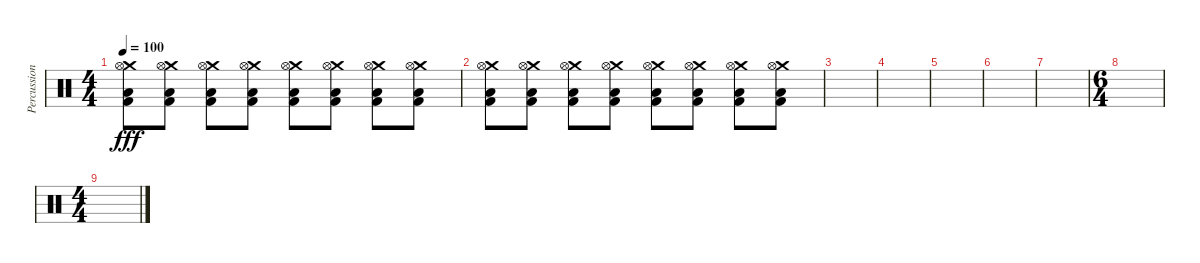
\track ("Percussion" "Percussion") {instrument percussion}
\staff {score}
\articulation defaults
\ts (4 4)
\tempo 100
\clef neutral
\ks c
("Crash medium (hit)" "Kick (hit) 2" "Low Floor Tom (hit)" "Hi-Hat (open)").8{dy fff volume 16 balance 11} ("Crash medium (hit)" "Kick (hit) 2" "Low Floor Tom (hit)" "Hi-Hat (open)").8 ("Crash medium (hit)" "Kick (hit) 2" "Low Floor Tom (hit)" "Hi-Hat (open)").8 ("Crash medium (hit)" "Kick (hit) 2" "Low Floor Tom (hit)" "Hi-Hat (open)").8 ("Crash medium (hit)" "Kick (hit) 2" "Low Floor Tom (hit)" "Hi-Hat (open)").8 ("Crash medium (hit)" "Kick (hit) 2" "Low Floor Tom (hit)" "Hi-Hat (open)").8 ("Crash medium (hit)" "Kick (hit) 2" "Low Floor Tom (hit)" "Hi-Hat (open)").8 ("Crash medium (hit)" "Kick (hit) 2" "Low Floor Tom (hit)" "Hi-Hat (open)").8 |
("Crash medium (hit)" "Kick (hit) 2" "Low Floor Tom (hit)" "Hi-Hat (open)").8{volume 16 balance 11} ("Crash medium (hit)" "Kick (hit) 2" "Low Floor Tom (hit)" "Hi-Hat (open)").8 ("Crash medium (hit)" "Kick (hit) 2" "Low Floor Tom (hit)" "Hi-Hat (open)").8 ("Crash medium (hit)" "Kick (hit) 2" "Low Floor Tom (hit)" "Hi-Hat (open)").8 ("Crash medium (hit)" "Kick (hit) 2" "Low Floor Tom (hit)" "Hi-Hat (open)").8 ("Crash medium (hit)" "Kick (hit) 2" "Low Floor Tom (hit)" "Hi-Hat (open)").8 ("Crash medium (hit)" "Kick (hit) 2" "Low Floor Tom (hit)" "Hi-Hat (open)").8 ("Crash medium (hit)" "Kick (hit) 2" "Low Floor Tom (hit)" "Hi-Hat (open)").8 |
|
|
|
|
|
\ts (6 4)
|
\ts (4 4)
